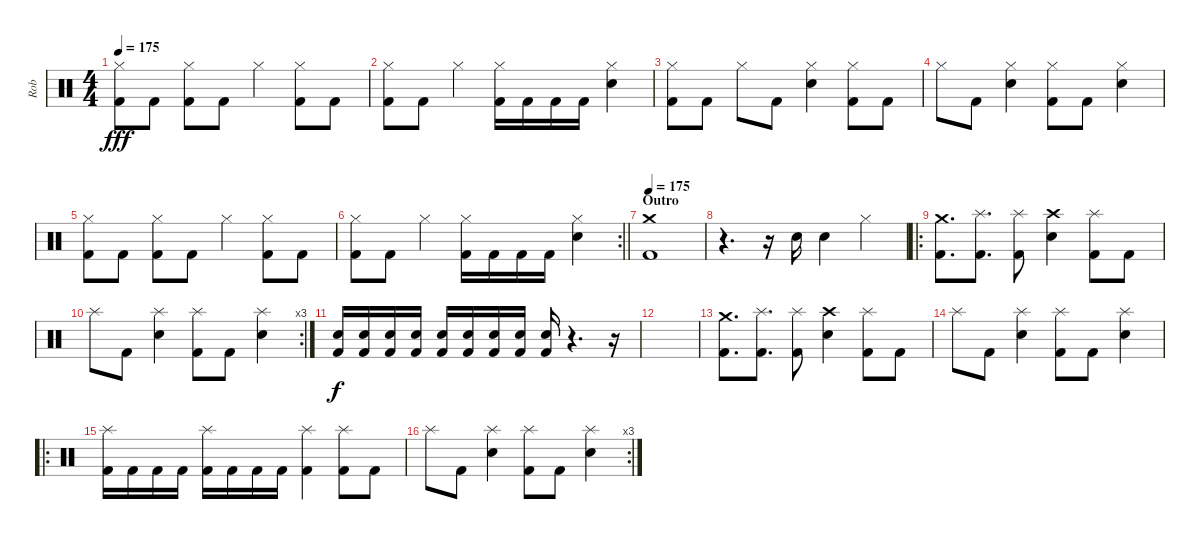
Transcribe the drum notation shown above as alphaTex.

\track ("Rob" "Rob") {instrument percussion}
\staff {score}
\articulation defaults
\ts (4 4)
\tempo 175
\clef neutral
\ks c
("Hi-Hat (closed)" "Kick (hit) 2").8{dy fff} "Kick (hit) 2".8 ("Hi-Hat (closed)" "Kick (hit) 2").8 "Kick (hit) 2".8 "Hi-Hat (closed)".4 ("Hi-Hat (closed)" "Kick (hit) 2").8 "Kick (hit) 2".8 |
("Hi-Hat (closed)" "Kick (hit) 2").8 "Kick (hit) 2".8 "Hi-Hat (closed)".4 ("Hi-Hat (closed)" "Kick (hit) 2").16 "Kick (hit) 2".16 "Kick (hit) 2".16 "Kick (hit) 2".16 ("Hi-Hat (closed)" "Electric Snare (hit)").4 |
("Hi-Hat (closed)" "Kick (hit) 2").8 "Kick (hit) 2".8 "Hi-Hat (closed)".8 "Kick (hit) 2".8 ("Hi-Hat (closed)" "Electric Snare (hit)").4 ("Hi-Hat (closed)" "Kick (hit) 2").8 "Kick (hit) 2".8 |
"Hi-Hat (closed)".8 "Kick (hit) 2".8 ("Hi-Hat (closed)" "Electric Snare (hit)").4 ("Hi-Hat (closed)" "Kick (hit) 2").8 "Kick (hit) 2".8 ("Hi-Hat (closed)" "Electric Snare (hit)").4 |
("Hi-Hat (closed)" "Kick (hit) 2").8 "Kick (hit) 2".8 ("Hi-Hat (closed)" "Kick (hit) 2").8 "Kick (hit) 2".8 "Hi-Hat (closed)".4 ("Hi-Hat (closed)" "Kick (hit) 2").8 "Kick (hit) 2".8 |
\rc 2
\barLineRight lightlight
("Hi-Hat (closed)" "Kick (hit) 2").8 "Kick (hit) 2".8 "Hi-Hat (closed)".4 ("Hi-Hat (closed)" "Kick (hit) 2").16 "Kick (hit) 2".16 "Kick (hit) 2".16 "Kick (hit) 2".16 ("Hi-Hat (closed)" "Electric Snare (hit)").4 |
\section ("" "Outro")
\tempo 175
("Crash medium (hit)" "Kick (hit) 2").1 |
r.4{d} r.16 "Electric Snare (hit)".16 "Electric Snare (hit)".4 "Hi-Hat (closed)".4 |
\ro
("Crash medium (hit)" "Kick (hit) 2").8{d} ("Splash (hit)" "Kick (hit) 2").8{d} ("Splash (hit)" "Kick (hit) 2").8 ("Crash high (hit)" "Electric Snare (hit)").4 ("Splash (hit)" "Kick (hit) 2").8 "Kick (hit) 2".8 |
\rc 3 "Splash (hit)".8 "Kick (hit) 2".8
("Splash (hit)" "Electric Snare (hit)").4 ("Splash (hit)" "Kick (hit) 2").8 "Kick (hit) 2".8 ("Splash (hit)" "Electric Snare (hit)").4 |
("Electric Snare (hit)" "Kick (hit) 2").16{dy f} ("Electric Snare (hit)" "Kick (hit) 2").16 ("Electric Snare (hit)" "Kick (hit) 2").16 ("Electric Snare (hit)" "Kick (hit) 2").16 ("Electric Snare (hit)" "Kick (hit) 2").16 ("Electric Snare (hit)" "Kick (hit) 2").16 ("Electric Snare (hit)" "Kick (hit) 2").16 ("Electric Snare (hit)" "Kick (hit) 2").16 ("Electric Snare (hit)" "Kick (hit) 2").16 r.4{d} r.16 |
|
("Crash medium (hit)" "Kick (hit) 2").8{d} ("Splash (hit)" "Kick (hit) 2").8{d} ("Splash (hit)" "Kick (hit) 2").8 ("Crash high (hit)" "Electric Snare (hit)").4 ("Splash (hit)" "Kick (hit) 2").8 "Kick (hit) 2".8 |
"Splash (hit)".8 "Kick (hit) 2".8 ("Splash (hit)" "Electric Snare (hit)").4 ("Splash (hit)" "Kick (hit) 2").8 "Kick (hit) 2".8 ("Splash (hit)" "Electric Snare (hit)").4 |
\ro
("Splash (hit)" "Kick (hit) 2").16 "Kick (hit) 2".16 "Kick (hit) 2".16 "Kick (hit) 2".16 ("Splash (hit)" "Kick (hit) 2").16 "Kick (hit) 2".16 "Kick (hit) 2".16 "Kick (hit) 2".16 ("Splash (hit)" "Kick (hit) 2").4 ("Splash (hit)" "Kick (hit) 2").8 "Kick (hit) 2".8 |
\rc 3 "Splash (hit)".8 "Kick (hit) 2".8
("Splash (hit)" "Electric Snare (hit)").4 ("Splash (hit)" "Kick (hit) 2").8 "Kick (hit) 2".8 ("Splash (hit)" "Electric Snare (hit)").4
